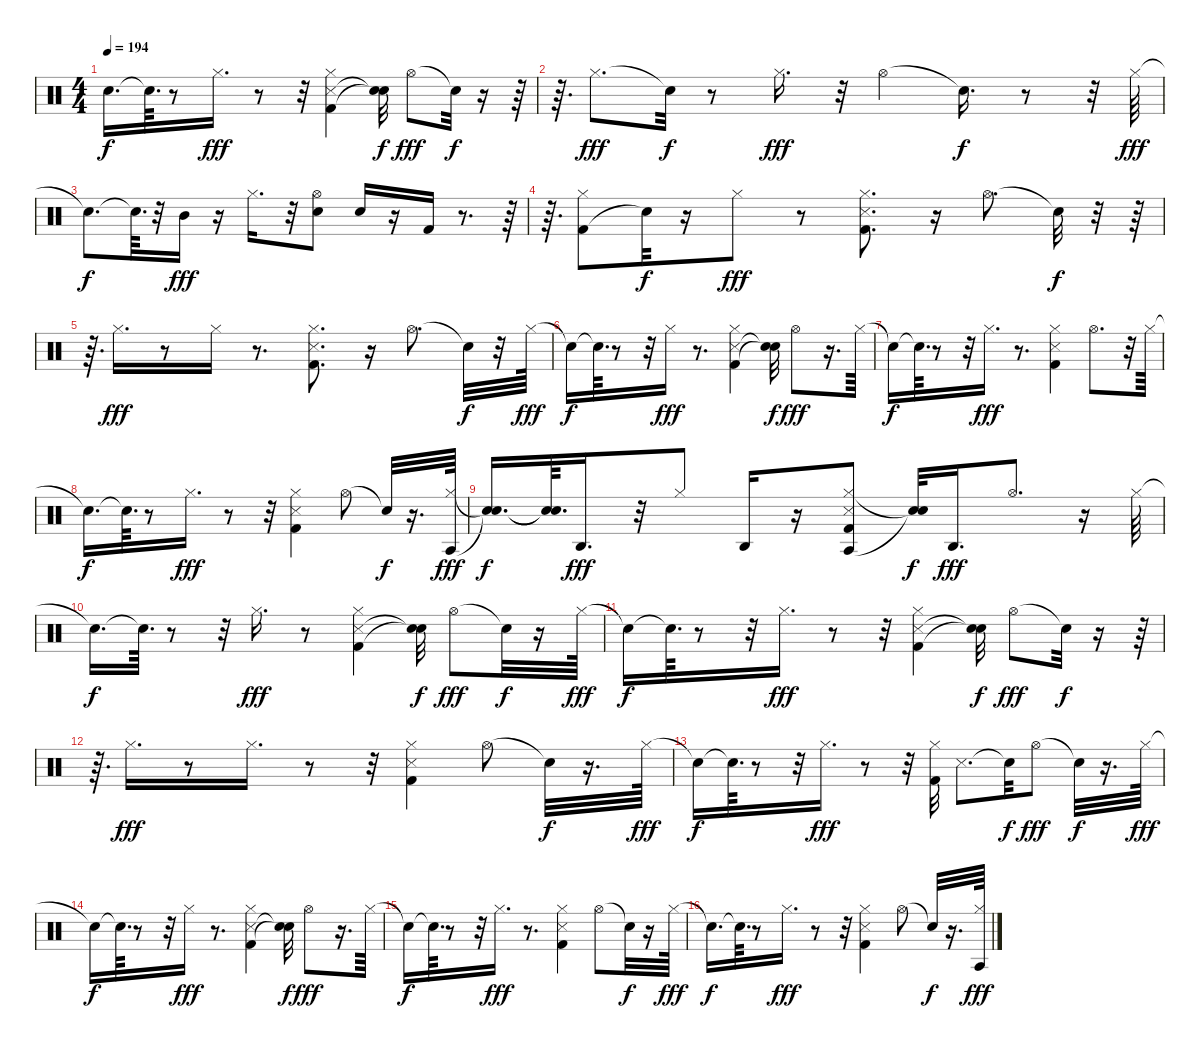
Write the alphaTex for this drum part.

\track "" {instrument percussion}
\staff {score}
\articulation defaults
\ts (4 4)
\tempo 194
\clef neutral
\ks c "Snare (hit)"{t}.16{d dy f} "Snare (hit)"{t}.64{d}
r.8 "Hi-Hat (closed)".16{d dy fff} r.8 r.32 ("Snare (side stick) 3" "Kick (hit) 2" "Hi-Hat (closed)").4 ("Snare (hit)"{t} "Snare (hit)"{t}).32{dy f} "Hi-Hat (open)".8{dy fff} "Snare (hit)"{t}.32{dy f} r.16 r.64 |
r.64{d} "Hi-Hat (closed)".8{d dy fff} "Snare (hit)"{t}.32{dy f} r.8 "Hi-Hat (closed)".16{d dy fff} r.32 "Hi-Hat (open)".4 "Snare (hit)"{t}.16{d dy f} r.8 r.32 "Hi-Hat (closed)".64{dy fff} |
"Snare (hit)"{t}.8{d dy f} "Snare (hit)"{t}.64{d} r.32 "Mid Tom (hit)".16{dy fff} r.16 "Hi-Hat (closed)".16{d} r.32 ("Snare (hit) 2" "Hi-Hat (open)").8 "Snare (hit) 2".16 r.16 "Kick (hit) 2".16 r.8{d} r.64 |
r.64{d} ("Kick (hit) 2" "Hi-Hat (closed)").8 "Snare (hit)"{t}.32{dy f} r.16 "Hi-Hat (closed)".8{dy fff} r.8 ("Snare (side stick) 3" "Kick (hit) 2" "Hi-Hat (closed)").8{d} r.16 "Hi-Hat (open)".8{d} "Snare (hit)"{t}.32{dy f} r.32 r.64 |
r.64{d} "Hi-Hat (closed)".16{d dy fff} r.8 "Hi-Hat (closed)".16 r.8{d} ("Snare (side stick) 3" "Kick (hit) 2" "Hi-Hat (closed)").8{d} r.16 "Hi-Hat (open)".8{d} "Snare (hit)"{t}.32{dy f} r.32 "Hi-Hat (closed)".64{dy fff} |
"Snare (hit)"{t}.16{dy f} "Snare (hit)"{t}.64{d} r.8 r.32 "Hi-Hat (closed)".16{dy fff} r.8{d} ("Snare (side stick) 3" "Kick (hit) 2" "Hi-Hat (closed)").4 ("Snare (hit)"{t} "Snare (hit)"{t}).32{dy f} "Hi-Hat (open)".8{dy fff} r.16{d} "Hi-Hat (closed)".64 |
"Snare (hit)"{t}.16{dy f} "Snare (hit)"{t}.64{d} r.8 r.32 "Hi-Hat (closed)".16{d dy fff} r.8{d} ("Snare (side stick) 3" "Kick (hit) 2" "Hi-Hat (closed)").4 "Hi-Hat (open)".8{d} r.32 "Hi-Hat (closed)".64 |
"Snare (hit)"{t}.16{d dy f} "Snare (hit)"{t}.64{d} r.8 "Hi-Hat (closed)".16{d dy fff} r.8 r.32 ("Snare (side stick) 3" "Kick (hit) 2" "Hi-Hat (closed)").4 "Hi-Hat (open)".8 "Snare (hit)"{t}.32{dy f} r.16{d} ("Hi-Hat (closed)" "Agogo tow (hit)").64{dy fff} |
("Snare (hit)"{t} "Snare (hit)"{t}).16{d dy f} ("Snare (hit)"{t} "Snare (hit)"{t}).64{d} "Agogo high (hit)".16{d dy fff} r.32 "Hi-Hat (closed)".8 "Agogo high (hit)".16 r.16 ("Agogo tow (hit)" "Hi-Hat (closed)" "Snare (side stick) 3" "Kick (hit) 2").8 ("Snare (hit)"{t} "Snare (hit)"{t}).32{dy f} "Agogo high (hit)".16{d dy fff} "Hi-Hat (open)".8{d} r.16 "Hi-Hat (closed)".64 |
"Snare (hit)"{t}.16{d dy f} "Snare (hit)"{t}.64{d} r.8 r.32 "Hi-Hat (closed)".16{d dy fff} r.8 ("Snare (side stick) 3" "Kick (hit) 2" "Hi-Hat (closed)").4 ("Snare (hit)"{t} "Snare (hit)"{t}).32{dy f} "Hi-Hat (open)".8{dy fff} "Snare (hit)"{t}.32{dy f} r.16 "Hi-Hat (closed)".64{dy fff} |
"Snare (hit)"{t}.16{dy f} "Snare (hit)"{t}.64{d} r.8 r.32 "Hi-Hat (closed)".16{d dy fff} r.8 r.32 ("Snare (side stick) 3" "Kick (hit) 2" "Hi-Hat (closed)").4 ("Snare (hit)"{t} "Snare (hit)"{t}).32{dy f} "Hi-Hat (open)".8{dy fff} "Snare (hit)"{t}.32{dy f} r.16 r.64 |
r.64{d} "Hi-Hat (closed)".16{d dy fff} r.8 "Hi-Hat (closed)".16{d} r.8 r.32 ("Kick (hit) 2" "Snare (side stick) 3" "Hi-Hat (closed)").4 "Hi-Hat (open)".8 "Snare (hit)"{t}.32{dy f} r.16{d} "Hi-Hat (closed)".64{dy fff} |
"Snare (hit)"{t}.16{dy f} "Snare (hit)"{t}.64{d} r.8 r.32 "Hi-Hat (closed)".16{d dy fff} r.8 r.32 ("Kick (hit) 2" "Hi-Hat (closed)").32 "Snare (side stick) 3".8{d} "Snare (hit)"{t}.32{dy f} "Hi-Hat (open)".8{dy fff} "Snare (hit)"{t}.32{dy f} r.16{d} "Hi-Hat (closed)".64{dy fff} |
"Snare (hit)"{t}.16{dy f} "Snare (hit)"{t}.64{d} r.8 r.32 "Hi-Hat (closed)".16{dy fff} r.8{d} ("Kick (hit) 2" "Snare (side stick) 3" "Hi-Hat (closed)").4 ("Snare (hit)"{t} "Snare (hit)"{t}).32{dy f} "Hi-Hat (open)".8{dy fff} r.16{d} "Hi-Hat (closed)".64 |
"Snare (hit)"{t}.16{dy f} "Snare (hit)"{t}.64{d} r.8 r.32 "Hi-Hat (closed)".16{d dy fff} r.8{d} ("Kick (hit) 2" "Snare (side stick) 3" "Hi-Hat (closed)").4 "Hi-Hat (open)".8 "Snare (hit)"{t}.32{dy f} r.16 "Hi-Hat (closed)".64{dy fff} |
"Snare (hit)"{t}.16{d dy f} "Snare (hit)"{t}.64{d} r.8 "Hi-Hat (closed)".16{d dy fff} r.8 r.32 ("Kick (hit) 2" "Snare (side stick) 3" "Hi-Hat (closed)").4 "Hi-Hat (open)".8 "Snare (hit)"{t}.32{dy f} r.16{d} ("Hi-Hat (closed)" "Agogo tow (hit)").64{dy fff}
